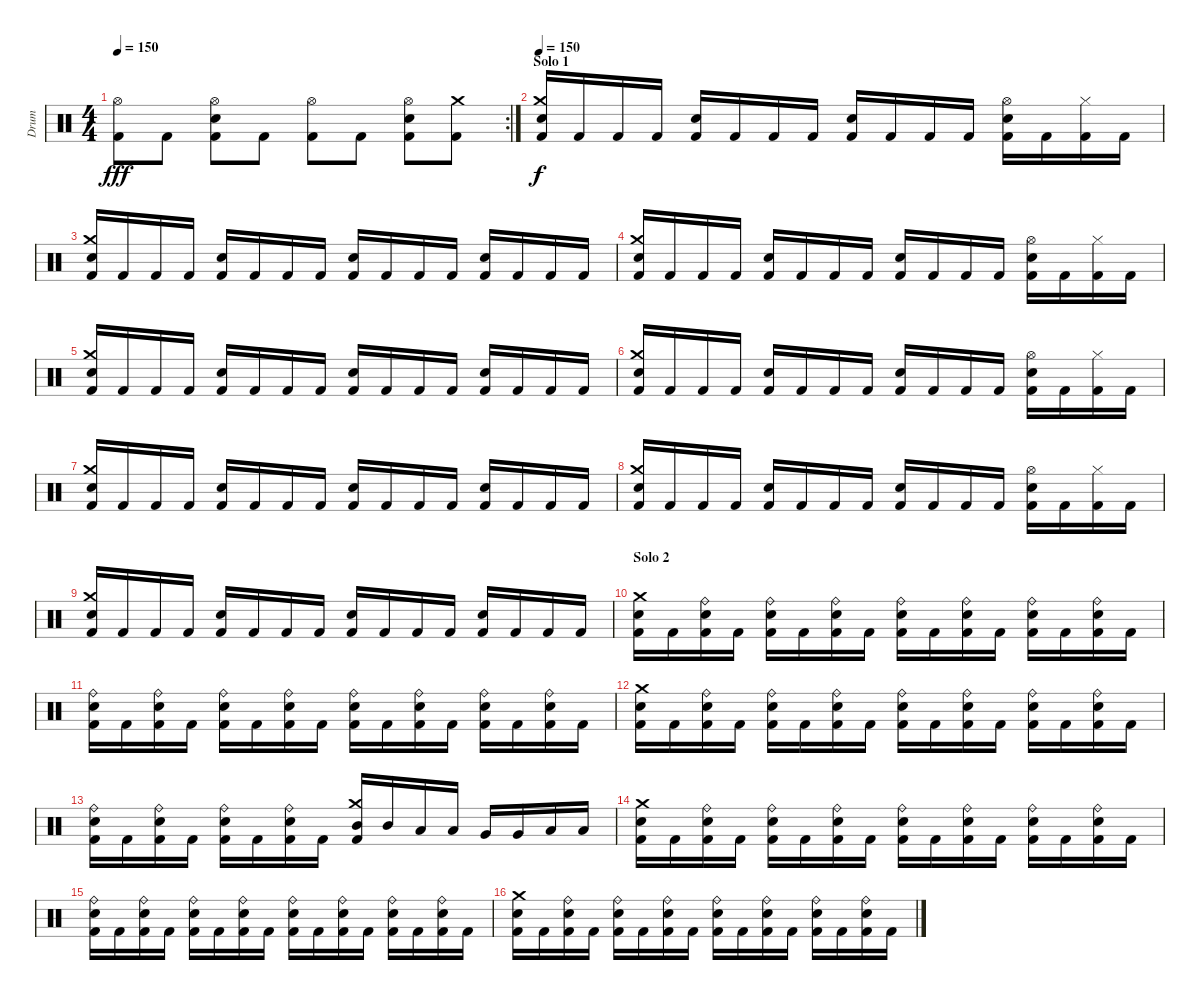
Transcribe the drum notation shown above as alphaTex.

\track ("Drum" "Drum") {instrument percussion}
\staff {score}
\articulation defaults
\rc 2
\ts (4 4)
\tempo 150
\clef neutral
\ks c
("Hi-Hat (open)" "Kick (hit) 2").8{dy fff} "Kick (hit) 2".8 ("Hi-Hat (open)" "Snare (hit) 2" "Kick (hit) 2").8 "Kick (hit) 2".8 ("Hi-Hat (open)" "Kick (hit) 2").8 "Kick (hit) 2".8 ("Hi-Hat (open)" "Snare (hit) 2" "Kick (hit) 2").8 ("Crash medium (hit)" "Kick (hit) 2").8 |
\section ("" "Solo 1")
\tempo 150
("Crash medium (hit)" "Electric Snare (hit)" "Kick (hit) 2").16{dy f} "Kick (hit) 2".16 "Kick (hit) 2".16 "Kick (hit) 2".16 ("Electric Snare (hit)" "Kick (hit) 2").16 "Kick (hit) 2".16 "Kick (hit) 2".16 "Kick (hit) 2".16 ("Electric Snare (hit)" "Kick (hit) 2").16 "Kick (hit) 2".16 "Kick (hit) 2".16 "Kick (hit) 2".16 ("Hi-Hat (open)" "Electric Snare (hit)" "Kick (hit) 2").16 "Kick (hit) 2".16 ("Hi-Hat (closed)" "Kick (hit) 2").16 "Kick (hit) 2".16 |
("Crash medium (hit)" "Electric Snare (hit)" "Kick (hit) 2").16 "Kick (hit) 2".16 "Kick (hit) 2".16 "Kick (hit) 2".16 ("Electric Snare (hit)" "Kick (hit) 2").16 "Kick (hit) 2".16 "Kick (hit) 2".16 "Kick (hit) 2".16 ("Electric Snare (hit)" "Kick (hit) 2").16 "Kick (hit) 2".16 "Kick (hit) 2".16 "Kick (hit) 2".16 ("Electric Snare (hit)" "Kick (hit) 2").16 "Kick (hit) 2".16 "Kick (hit) 2".16 "Kick (hit) 2".16 |
("Crash medium (hit)" "Electric Snare (hit)" "Kick (hit) 2").16 "Kick (hit) 2".16 "Kick (hit) 2".16 "Kick (hit) 2".16 ("Electric Snare (hit)" "Kick (hit) 2").16 "Kick (hit) 2".16 "Kick (hit) 2".16 "Kick (hit) 2".16 ("Electric Snare (hit)" "Kick (hit) 2").16 "Kick (hit) 2".16 "Kick (hit) 2".16 "Kick (hit) 2".16 ("Hi-Hat (open)" "Electric Snare (hit)" "Kick (hit) 2").16 "Kick (hit) 2".16 ("Hi-Hat (closed)" "Kick (hit) 2").16 "Kick (hit) 2".16 |
("Crash medium (hit)" "Electric Snare (hit)" "Kick (hit) 2").16 "Kick (hit) 2".16 "Kick (hit) 2".16 "Kick (hit) 2".16 ("Electric Snare (hit)" "Kick (hit) 2").16 "Kick (hit) 2".16 "Kick (hit) 2".16 "Kick (hit) 2".16 ("Electric Snare (hit)" "Kick (hit) 2").16 "Kick (hit) 2".16 "Kick (hit) 2".16 "Kick (hit) 2".16 ("Electric Snare (hit)" "Kick (hit) 2").16 "Kick (hit) 2".16 "Kick (hit) 2".16 "Kick (hit) 2".16 |
("Crash medium (hit)" "Electric Snare (hit)" "Kick (hit) 2").16 "Kick (hit) 2".16 "Kick (hit) 2".16 "Kick (hit) 2".16 ("Electric Snare (hit)" "Kick (hit) 2").16 "Kick (hit) 2".16 "Kick (hit) 2".16 "Kick (hit) 2".16 ("Electric Snare (hit)" "Kick (hit) 2").16 "Kick (hit) 2".16 "Kick (hit) 2".16 "Kick (hit) 2".16 ("Hi-Hat (open)" "Electric Snare (hit)" "Kick (hit) 2").16 "Kick (hit) 2".16 ("Hi-Hat (closed)" "Kick (hit) 2").16 "Kick (hit) 2".16 |
("Crash medium (hit)" "Electric Snare (hit)" "Kick (hit) 2").16 "Kick (hit) 2".16 "Kick (hit) 2".16 "Kick (hit) 2".16 ("Electric Snare (hit)" "Kick (hit) 2").16 "Kick (hit) 2".16 "Kick (hit) 2".16 "Kick (hit) 2".16 ("Electric Snare (hit)" "Kick (hit) 2").16 "Kick (hit) 2".16 "Kick (hit) 2".16 "Kick (hit) 2".16 ("Electric Snare (hit)" "Kick (hit) 2").16 "Kick (hit) 2".16 "Kick (hit) 2".16 "Kick (hit) 2".16 |
("Crash medium (hit)" "Electric Snare (hit)" "Kick (hit) 2").16 "Kick (hit) 2".16 "Kick (hit) 2".16 "Kick (hit) 2".16 ("Electric Snare (hit)" "Kick (hit) 2").16 "Kick (hit) 2".16 "Kick (hit) 2".16 "Kick (hit) 2".16 ("Electric Snare (hit)" "Kick (hit) 2").16 "Kick (hit) 2".16 "Kick (hit) 2".16 "Kick (hit) 2".16 ("Hi-Hat (open)" "Electric Snare (hit)" "Kick (hit) 2").16 "Kick (hit) 2".16 ("Hi-Hat (closed)" "Kick (hit) 2").16 "Kick (hit) 2".16 |
("Crash medium (hit)" "Electric Snare (hit)" "Kick (hit) 2").16 "Kick (hit) 2".16 "Kick (hit) 2".16 "Kick (hit) 2".16 ("Electric Snare (hit)" "Kick (hit) 2").16 "Kick (hit) 2".16 "Kick (hit) 2".16 "Kick (hit) 2".16 ("Electric Snare (hit)" "Kick (hit) 2").16 "Kick (hit) 2".16 "Kick (hit) 2".16 "Kick (hit) 2".16 ("Electric Snare (hit)" "Kick (hit) 2").16 "Kick (hit) 2".16 "Kick (hit) 2".16 "Kick (hit) 2".16 |
\section ("" "Solo 2")
("Crash medium (hit)" "Electric Snare (hit)" "Kick (hit) 2").16 "Kick (hit) 2".16 ("Ride (bell)" "Electric Snare (hit)" "Kick (hit) 2").16 "Kick (hit) 2".16 ("Ride (bell)" "Electric Snare (hit)" "Kick (hit) 2").16 "Kick (hit) 2".16 ("Ride (bell)" "Electric Snare (hit)" "Kick (hit) 2").16 "Kick (hit) 2".16 ("Ride (bell)" "Electric Snare (hit)" "Kick (hit) 2").16 "Kick (hit) 2".16 ("Ride (bell)" "Electric Snare (hit)" "Kick (hit) 2").16 "Kick (hit) 2".16 ("Ride (bell)" "Electric Snare (hit)" "Kick (hit) 2").16 "Kick (hit) 2".16 ("Ride (bell)" "Electric Snare (hit)" "Kick (hit) 2").16 "Kick (hit) 2".16 |
("Ride (bell)" "Electric Snare (hit)" "Kick (hit) 2").16 "Kick (hit) 2".16 ("Ride (bell)" "Electric Snare (hit)" "Kick (hit) 2").16 "Kick (hit) 2".16 ("Ride (bell)" "Electric Snare (hit)" "Kick (hit) 2").16 "Kick (hit) 2".16 ("Ride (bell)" "Electric Snare (hit)" "Kick (hit) 2").16 "Kick (hit) 2".16 ("Ride (bell)" "Electric Snare (hit)" "Kick (hit) 2").16 "Kick (hit) 2".16 ("Ride (bell)" "Electric Snare (hit)" "Kick (hit) 2").16 "Kick (hit) 2".16 ("Ride (bell)" "Electric Snare (hit)" "Kick (hit) 2").16 "Kick (hit) 2".16 ("Ride (bell)" "Electric Snare (hit)" "Kick (hit) 2").16 "Kick (hit) 2".16 |
("Crash medium (hit)" "Electric Snare (hit)" "Kick (hit) 2").16 "Kick (hit) 2".16 ("Ride (bell)" "Electric Snare (hit)" "Kick (hit) 2").16 "Kick (hit) 2".16 ("Ride (bell)" "Electric Snare (hit)" "Kick (hit) 2").16 "Kick (hit) 2".16 ("Ride (bell)" "Electric Snare (hit)" "Kick (hit) 2").16 "Kick (hit) 2".16 ("Ride (bell)" "Electric Snare (hit)" "Kick (hit) 2").16 "Kick (hit) 2".16 ("Ride (bell)" "Electric Snare (hit)" "Kick (hit) 2").16 "Kick (hit) 2".16 ("Ride (bell)" "Electric Snare (hit)" "Kick (hit) 2").16 "Kick (hit) 2".16 ("Ride (bell)" "Electric Snare (hit)" "Kick (hit) 2").16 "Kick (hit) 2".16 |
("Ride (bell)" "Electric Snare (hit)" "Kick (hit) 2").16 "Kick (hit) 2".16 ("Ride (bell)" "Electric Snare (hit)" "Kick (hit) 2").16 "Kick (hit) 2".16 ("Ride (bell)" "Electric Snare (hit)" "Kick (hit) 2").16 "Kick (hit) 2".16 ("Ride (bell)" "Electric Snare (hit)" "Kick (hit) 2").16 "Kick (hit) 2".16 ("Crash medium (hit)" "Mid Tom (hit)" "Kick (hit) 2").16 "Mid Tom (hit)".16 "Low Tom (hit)".16 "Low Tom (hit)".16 "Very Low Tom (hit)".16 "Very Low Tom (hit)".16 "Low Floor Tom (hit)".16 "Low Floor Tom (hit)".16 |
("Crash medium (hit)" "Electric Snare (hit)" "Kick (hit) 2").16 "Kick (hit) 2".16 ("Ride (bell)" "Electric Snare (hit)" "Kick (hit) 2").16 "Kick (hit) 2".16 ("Ride (bell)" "Electric Snare (hit)" "Kick (hit) 2").16 "Kick (hit) 2".16 ("Ride (bell)" "Electric Snare (hit)" "Kick (hit) 2").16 "Kick (hit) 2".16 ("Ride (bell)" "Electric Snare (hit)" "Kick (hit) 2").16 "Kick (hit) 2".16 ("Ride (bell)" "Electric Snare (hit)" "Kick (hit) 2").16 "Kick (hit) 2".16 ("Ride (bell)" "Electric Snare (hit)" "Kick (hit) 2").16 "Kick (hit) 2".16 ("Ride (bell)" "Electric Snare (hit)" "Kick (hit) 2").16 "Kick (hit) 2".16 |
("Ride (bell)" "Electric Snare (hit)" "Kick (hit) 2").16 "Kick (hit) 2".16 ("Ride (bell)" "Electric Snare (hit)" "Kick (hit) 2").16 "Kick (hit) 2".16 ("Ride (bell)" "Electric Snare (hit)" "Kick (hit) 2").16 "Kick (hit) 2".16 ("Ride (bell)" "Electric Snare (hit)" "Kick (hit) 2").16 "Kick (hit) 2".16 ("Ride (bell)" "Electric Snare (hit)" "Kick (hit) 2").16 "Kick (hit) 2".16 ("Ride (bell)" "Electric Snare (hit)" "Kick (hit) 2").16 "Kick (hit) 2".16 ("Ride (bell)" "Electric Snare (hit)" "Kick (hit) 2").16 "Kick (hit) 2".16 ("Ride (bell)" "Electric Snare (hit)" "Kick (hit) 2").16 "Kick (hit) 2".16 |
("Crash medium (hit)" "Electric Snare (hit)" "Kick (hit) 2").16 "Kick (hit) 2".16 ("Ride (bell)" "Electric Snare (hit)" "Kick (hit) 2").16 "Kick (hit) 2".16 ("Ride (bell)" "Electric Snare (hit)" "Kick (hit) 2").16 "Kick (hit) 2".16 ("Ride (bell)" "Electric Snare (hit)" "Kick (hit) 2").16 "Kick (hit) 2".16 ("Ride (bell)" "Electric Snare (hit)" "Kick (hit) 2").16 "Kick (hit) 2".16 ("Ride (bell)" "Electric Snare (hit)" "Kick (hit) 2").16 "Kick (hit) 2".16 ("Ride (bell)" "Electric Snare (hit)" "Kick (hit) 2").16 "Kick (hit) 2".16 ("Ride (bell)" "Electric Snare (hit)" "Kick (hit) 2").16 "Kick (hit) 2".16
